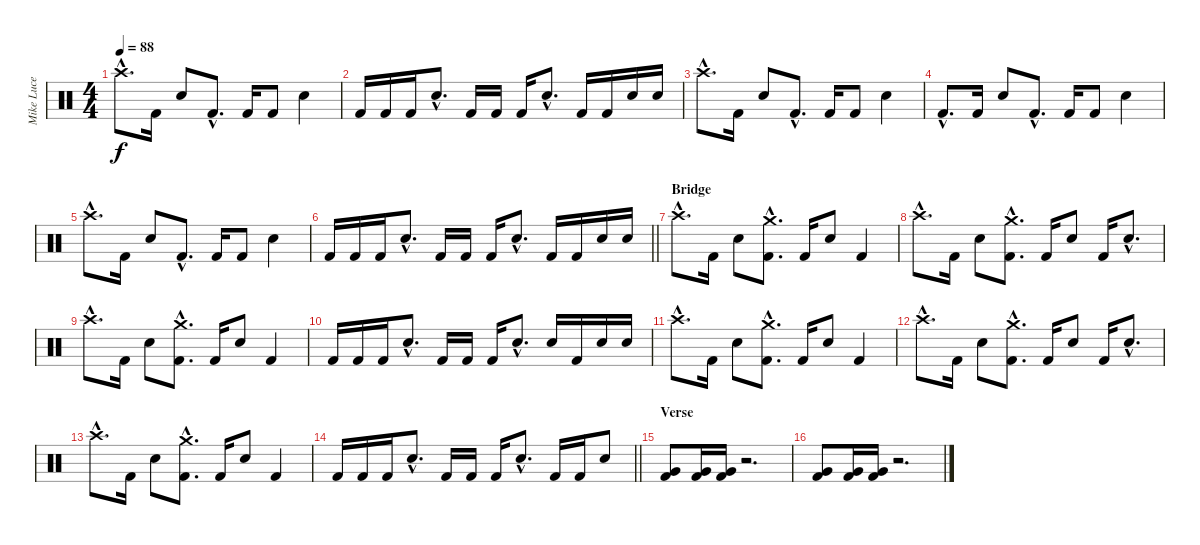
\track ("Mike Luce (Drums)" "Mike Luce ") {instrument percussion}
\staff {score}
\articulation defaults
\ts (4 4)
\tempo 88
\clef neutral
\ks c "Crash high (hit)"{hac}.8{d dy f} "Kick (hit) 2".16 "Electric Snare (hit)".8 "Kick (hit) 2"{hac}.8{d} "Kick (hit) 2".16 "Kick (hit) 2".8 "Electric Snare (hit)".4
|
"Kick (hit) 2".16 "Kick (hit) 2".16 "Kick (hit) 2".16 "Electric Snare (hit)"{hac}.8{d} "Kick (hit) 2".16 "Kick (hit) 2".16 "Kick (hit) 2".16 "Electric Snare (hit)"{hac}.8{d} "Kick (hit) 2".16 "Kick (hit) 2".16 "Electric Snare (hit)".16 "Electric Snare (hit)".16 |
"Crash high (hit)"{hac}.8{d} "Kick (hit) 2".16 "Electric Snare (hit)".8 "Kick (hit) 2"{hac}.8{d} "Kick (hit) 2".16 "Kick (hit) 2".8 "Electric Snare (hit)".4 |
"Kick (hit) 2"{hac}.8{d} "Kick (hit) 2".16 "Electric Snare (hit)".8 "Kick (hit) 2"{hac}.8{d} "Kick (hit) 2".16 "Kick (hit) 2".8 "Electric Snare (hit)".4 |
"Crash high (hit)"{hac}.8{d} "Kick (hit) 2".16 "Electric Snare (hit)".8 "Kick (hit) 2"{hac}.8{d} "Kick (hit) 2".16 "Kick (hit) 2".8 "Electric Snare (hit)".4 |
\barLineRight lightlight "Kick (hit) 2".16 "Kick (hit) 2".16 "Kick (hit) 2".16 "Electric Snare (hit)"{hac}.8{d} "Kick (hit) 2".16 "Kick (hit) 2".16 "Kick (hit) 2".16 "Electric Snare (hit)"{hac}.8{d} "Kick (hit) 2".16 "Kick (hit) 2".16 "Electric Snare (hit)".16 "Electric Snare (hit)".16
|
\section ("" "Bridge")
"Crash high (hit)"{hac}.8{d} "Kick (hit) 2".16 "Electric Snare (hit)".8 ("Kick (hit) 2"{hac} "Crash medium (hit)"{hac}).8{d} "Kick (hit) 2".16 "Electric Snare (hit)".8 "Kick (hit) 2".4 |
"Crash high (hit)"{hac}.8{d} "Kick (hit) 2".16 "Electric Snare (hit)".8 ("Kick (hit) 2"{hac} "Crash medium (hit)"{hac}).8{d} "Kick (hit) 2".16 "Electric Snare (hit)".8 "Kick (hit) 2".16 "Electric Snare (hit)"{hac}.8{d} |
"Crash high (hit)"{hac}.8{d} "Kick (hit) 2".16 "Electric Snare (hit)".8 ("Kick (hit) 2"{hac} "Crash medium (hit)"{hac}).8{d} "Kick (hit) 2".16 "Electric Snare (hit)".8 "Kick (hit) 2".4 |
"Kick (hit) 2".16 "Kick (hit) 2".16 "Kick (hit) 2".16 "Electric Snare (hit)"{hac}.8{d} "Kick (hit) 2".16 "Kick (hit) 2".16 "Kick (hit) 2".16 "Electric Snare (hit)"{hac}.8{d} "Electric Snare (hit)".16 "Kick (hit) 2".16 "Electric Snare (hit)".16 "Electric Snare (hit)".16 |
"Crash high (hit)"{hac}.8{d} "Kick (hit) 2".16 "Electric Snare (hit)".8 ("Kick (hit) 2"{hac} "Crash medium (hit)"{hac}).8{d} "Kick (hit) 2".16 "Electric Snare (hit)".8 "Kick (hit) 2".4 |
"Crash high (hit)"{hac}.8{d} "Kick (hit) 2".16 "Electric Snare (hit)".8 ("Kick (hit) 2"{hac} "Crash medium (hit)"{hac}).8{d} "Kick (hit) 2".16 "Electric Snare (hit)".8 "Kick (hit) 2".16 "Electric Snare (hit)"{hac}.8{d} |
"Crash high (hit)"{hac}.8{d} "Kick (hit) 2".16 "Electric Snare (hit)".8 ("Kick (hit) 2"{hac} "Crash medium (hit)"{hac}).8{d} "Kick (hit) 2".16 "Electric Snare (hit)".8 "Kick (hit) 2".4 |
\barLineRight lightlight "Kick (hit) 2".16 "Kick (hit) 2".16 "Kick (hit) 2".16 "Electric Snare (hit)"{hac}.8{d} "Kick (hit) 2".16 "Kick (hit) 2".16 "Kick (hit) 2".16 "Electric Snare (hit)"{hac}.8{d} "Kick (hit) 2".16 "Kick (hit) 2".16 "Electric Snare (hit)".8
|
\section ("" "Verse")
("Kick (hit) 2" "Very Low Tom (hit)").8 ("Kick (hit) 2" "Very Low Tom (hit)").16 ("Kick (hit) 2" "Very Low Tom (hit)").16 r.2{d} |
("Kick (hit) 2" "Very Low Tom (hit)").8 ("Kick (hit) 2" "Very Low Tom (hit)").16 ("Kick (hit) 2" "Very Low Tom (hit)").16 r.2{d}
